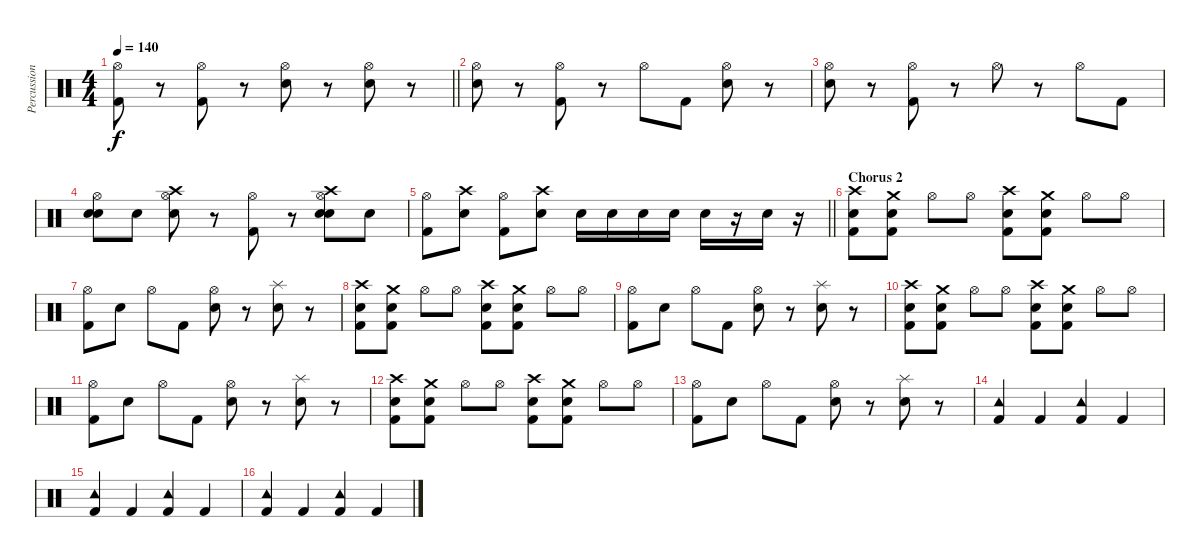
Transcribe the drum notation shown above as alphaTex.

\track ("Percussion" "Percussion") {instrument percussion}
\staff {score}
\articulation defaults
\ts (4 4)
\tempo 140
\clef neutral
\barLineRight lightlight
\ks c
("Hi-Hat (open)" "Kick (hit) 2").8{dy f} r.8 ("Hi-Hat (open)" "Kick (hit) 2").8 r.8 ("Hi-Hat (open)" "Snare (hit) 2").8 r.8 ("Hi-Hat (open)" "Snare (hit) 2").8 r.8 |
("Hi-Hat (open)" "Snare (hit) 2").8 r.8 ("Hi-Hat (open)" "Kick (hit) 2").8 r.8 "Hi-Hat (open)".8 "Kick (hit) 2".8 ("Hi-Hat (open)" "Snare (hit) 2").8 r.8 |
("Hi-Hat (open)" "Snare (hit) 2").8 r.8 ("Hi-Hat (open)" "Kick (hit) 2").8 r.8 "Hi-Hat (open)".8 r.8 "Hi-Hat (open)".8 "Kick (hit) 2".8 |
("Hi-Hat (open)" "Snare (hit) 2" "Snare (hit) 2").8 "Snare (hit) 2".8 ("Crash high (hit)" "Hi-Hat (open)" "Snare (hit) 2").8 r.8 ("Hi-Hat (open)" "Kick (hit) 2").8 r.8 ("Crash high (hit)" "Hi-Hat (open)" "Snare (hit) 2" "Snare (hit) 2").8 "Snare (hit) 2".8 |
\barLineRight lightlight
("Hi-Hat (open)" "Kick (hit) 2").8 ("Crash high (hit)" "Snare (hit) 2").8 ("Hi-Hat (open)" "Kick (hit) 2").8 ("Crash high (hit)" "Snare (hit) 2").8 "Snare (hit) 2".16 "Snare (hit) 2".16 "Snare (hit) 2".16 "Snare (hit) 2".16 "Snare (hit) 2".16 r.16 "Snare (hit) 2".16 r.16 |
\section ("" "Chorus 2")
("Crash high (hit)" "Snare (hit) 2" "Kick (hit) 2").8 ("Crash medium (hit)" "Snare (hit) 2" "Kick (hit) 2").8 "Hi-Hat (open)".8 "Hi-Hat (open)".8 ("Crash high (hit)" "Snare (hit) 2" "Kick (hit) 2").8 ("Crash medium (hit)" "Snare (hit) 2" "Kick (hit) 2").8 "Hi-Hat (open)".8 "Hi-Hat (open)".8 |
("Hi-Hat (open)" "Kick (hit) 2").8 "Snare (hit) 2".8 "Hi-Hat (open)".8 "Kick (hit) 2".8 ("Hi-Hat (open)" "Snare (hit) 2").8 r.8 ("Splash (hit)" "Snare (hit) 2").8 r.8 |
("Crash high (hit)" "Snare (hit) 2" "Kick (hit) 2").8 ("Crash medium (hit)" "Snare (hit) 2" "Kick (hit) 2").8 "Hi-Hat (open)".8 "Hi-Hat (open)".8 ("Crash high (hit)" "Snare (hit) 2" "Kick (hit) 2").8 ("Crash medium (hit)" "Snare (hit) 2" "Kick (hit) 2").8 "Hi-Hat (open)".8 "Hi-Hat (open)".8 |
("Hi-Hat (open)" "Kick (hit) 2").8 "Snare (hit) 2".8 "Hi-Hat (open)".8 "Kick (hit) 2".8 ("Hi-Hat (open)" "Snare (hit) 2").8 r.8 ("Splash (hit)" "Snare (hit) 2").8 r.8 |
("Crash high (hit)" "Snare (hit) 2" "Kick (hit) 2").8 ("Crash medium (hit)" "Snare (hit) 2" "Kick (hit) 2").8 "Hi-Hat (open)".8 "Hi-Hat (open)".8 ("Crash high (hit)" "Snare (hit) 2" "Kick (hit) 2").8 ("Crash medium (hit)" "Snare (hit) 2" "Kick (hit) 2").8 "Hi-Hat (open)".8 "Hi-Hat (open)".8 |
("Hi-Hat (open)" "Kick (hit) 2").8 "Snare (hit) 2".8 "Hi-Hat (open)".8 "Kick (hit) 2".8 ("Hi-Hat (open)" "Snare (hit) 2").8 r.8 ("Splash (hit)" "Snare (hit) 2").8 r.8 |
("Crash high (hit)" "Snare (hit) 2" "Kick (hit) 2").8 ("Crash medium (hit)" "Snare (hit) 2" "Kick (hit) 2").8 "Hi-Hat (open)".8 "Hi-Hat (open)".8 ("Crash high (hit)" "Snare (hit) 2" "Kick (hit) 2").8 ("Crash medium (hit)" "Snare (hit) 2" "Kick (hit) 2").8 "Hi-Hat (open)".8 "Hi-Hat (open)".8 |
("Hi-Hat (open)" "Kick (hit) 2").8 "Snare (hit) 2".8 "Hi-Hat (open)".8 "Kick (hit) 2".8 ("Hi-Hat (open)" "Snare (hit) 2").8 r.8 ("Splash (hit)" "Snare (hit) 2").8 r.8 |
("Tambourine (hit)" "Kick (hit) 2").4 "Kick (hit) 2".4 ("Tambourine (hit)" "Kick (hit) 2").4 "Kick (hit) 2".4 |
("Tambourine (hit)" "Kick (hit) 2").4 "Kick (hit) 2".4 ("Tambourine (hit)" "Kick (hit) 2").4 "Kick (hit) 2".4 |
("Tambourine (hit)" "Kick (hit) 2").4 "Kick (hit) 2".4 ("Tambourine (hit)" "Kick (hit) 2").4 "Kick (hit) 2".4
